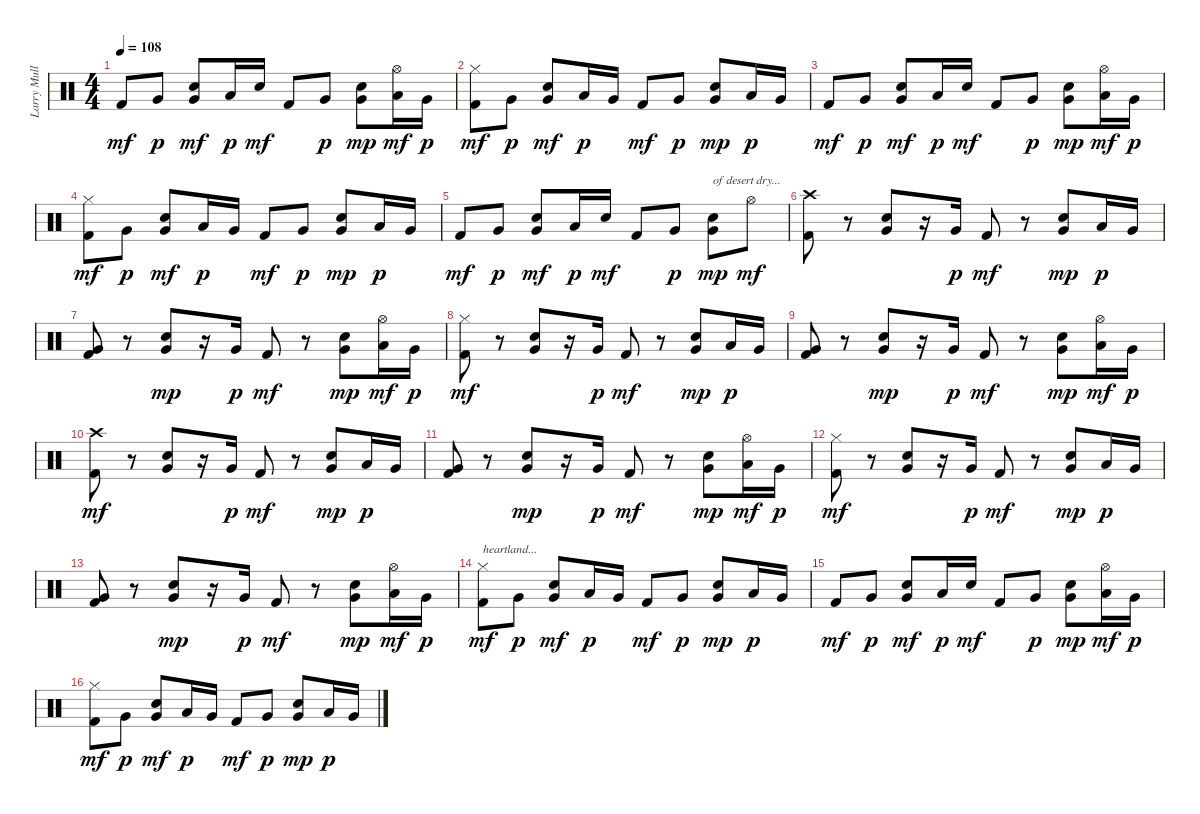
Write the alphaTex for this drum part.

\track ("Larry Mullen Jr." "Larry Mull") {instrument percussion}
\staff {score}
\articulation defaults
\ts (4 4)
\tempo 108
\clef neutral
\ks c "Kick (hit) 2".8{dy mf} "Very Low Tom (hit)".8{dy p}
("Electric Snare (hit)" "Very Low Tom (hit)").8{dy mf} "Low Floor Tom (hit)".16{dy p} "Electric Snare (hit)".16{dy mf} "Kick (hit) 2".8 "Very Low Tom (hit)".8{dy p} ("Electric Snare (hit)" "Very Low Tom (hit)").8{dy mp} ("Low Floor Tom (hit)" "Hi-Hat (open)").16{dy mf} "Very Low Tom (hit)".16{dy p} |
("Kick (hit) 2" "Hi-Hat (closed)").8{dy mf} "Very Low Tom (hit)".8{dy p} ("Electric Snare (hit)" "Very Low Tom (hit)").8{dy mf} "Low Floor Tom (hit)".16{dy p} "Very Low Tom (hit)".16 "Kick (hit) 2".8{dy mf} "Very Low Tom (hit)".8{dy p} ("Electric Snare (hit)" "Very Low Tom (hit)").8{dy mp} "Low Floor Tom (hit)".16{dy p} "Very Low Tom (hit)".16 |
"Kick (hit) 2".8{dy mf} "Very Low Tom (hit)".8{dy p} ("Electric Snare (hit)" "Very Low Tom (hit)").8{dy mf} "Low Floor Tom (hit)".16{dy p} "Electric Snare (hit)".16{dy mf} "Kick (hit) 2".8 "Very Low Tom (hit)".8{dy p} ("Electric Snare (hit)" "Very Low Tom (hit)").8{dy mp} ("Low Floor Tom (hit)" "Hi-Hat (open)").16{dy mf} "Very Low Tom (hit)".16{dy p} |
("Kick (hit) 2" "Hi-Hat (closed)").8{dy mf} "Very Low Tom (hit)".8{dy p} ("Electric Snare (hit)" "Very Low Tom (hit)").8{dy mf} "Low Floor Tom (hit)".16{dy p} "Very Low Tom (hit)".16 "Kick (hit) 2".8{dy mf} "Very Low Tom (hit)".8{dy p} ("Electric Snare (hit)" "Very Low Tom (hit)").8{dy mp} "Low Floor Tom (hit)".16{dy p} "Very Low Tom (hit)".16 |
"Kick (hit) 2".8{dy mf} "Very Low Tom (hit)".8{dy p} ("Electric Snare (hit)" "Very Low Tom (hit)").8{dy mf} "Low Floor Tom (hit)".16{dy p} "Electric Snare (hit)".16{dy mf} "Kick (hit) 2".8 "Very Low Tom (hit)".8{dy p} ("Electric Snare (hit)" "Very Low Tom (hit)").8{txt "of desert dry..." dy mp} "Hi-Hat (open)".8{dy mf} |
("Kick (hit) 2" "Crash high (hit)").8 r.8 ("Electric Snare (hit)" "Very Low Tom (hit)").8 r.16 "Very Low Tom (hit)".16{dy p} "Kick (hit) 2".8{dy mf} r.8 ("Electric Snare (hit)" "Very Low Tom (hit)").8{dy mp} "Low Floor Tom (hit)".16{dy p} "Very Low Tom (hit)".16 |
("Kick (hit) 2" "Very Low Tom (hit)").8 r.8 ("Electric Snare (hit)" "Very Low Tom (hit)").8{dy mp} r.16 "Very Low Tom (hit)".16{dy p} "Kick (hit) 2".8{dy mf} r.8 ("Electric Snare (hit)" "Very Low Tom (hit)").8{dy mp} ("Low Floor Tom (hit)" "Hi-Hat (open)").16{dy mf} "Very Low Tom (hit)".16{dy p} |
("Kick (hit) 2" "Hi-Hat (closed)").8{dy mf} r.8 ("Electric Snare (hit)" "Very Low Tom (hit)").8 r.16 "Very Low Tom (hit)".16{dy p} "Kick (hit) 2".8{dy mf} r.8 ("Electric Snare (hit)" "Very Low Tom (hit)").8{dy mp} "Low Floor Tom (hit)".16{dy p} "Very Low Tom (hit)".16 |
("Kick (hit) 2" "Very Low Tom (hit)").8 r.8 ("Electric Snare (hit)" "Very Low Tom (hit)").8{dy mp} r.16 "Very Low Tom (hit)".16{dy p} "Kick (hit) 2".8{dy mf} r.8 ("Electric Snare (hit)" "Very Low Tom (hit)").8{dy mp} ("Low Floor Tom (hit)" "Hi-Hat (open)").16{dy mf} "Very Low Tom (hit)".16{dy p} |
("Kick (hit) 2" "Crash high (hit)").8{dy mf} r.8 ("Electric Snare (hit)" "Very Low Tom (hit)").8 r.16 "Very Low Tom (hit)".16{dy p} "Kick (hit) 2".8{dy mf} r.8 ("Electric Snare (hit)" "Very Low Tom (hit)").8{dy mp} "Low Floor Tom (hit)".16{dy p} "Very Low Tom (hit)".16 |
("Kick (hit) 2" "Very Low Tom (hit)").8 r.8 ("Electric Snare (hit)" "Very Low Tom (hit)").8{dy mp} r.16 "Very Low Tom (hit)".16{dy p} "Kick (hit) 2".8{dy mf} r.8 ("Electric Snare (hit)" "Very Low Tom (hit)").8{dy mp} ("Low Floor Tom (hit)" "Hi-Hat (open)").16{dy mf} "Very Low Tom (hit)".16{dy p} |
("Kick (hit) 2" "Hi-Hat (closed)").8{dy mf} r.8 ("Electric Snare (hit)" "Very Low Tom (hit)").8 r.16 "Very Low Tom (hit)".16{dy p} "Kick (hit) 2".8{dy mf} r.8 ("Electric Snare (hit)" "Very Low Tom (hit)").8{dy mp} "Low Floor Tom (hit)".16{dy p} "Very Low Tom (hit)".16 |
("Kick (hit) 2" "Very Low Tom (hit)").8 r.8 ("Electric Snare (hit)" "Very Low Tom (hit)").8{dy mp} r.16 "Very Low Tom (hit)".16{dy p} "Kick (hit) 2".8{dy mf} r.8 ("Electric Snare (hit)" "Very Low Tom (hit)").8{dy mp} ("Low Floor Tom (hit)" "Hi-Hat (open)").16{dy mf} "Very Low Tom (hit)".16{dy p} |
("Kick (hit) 2" "Hi-Hat (closed)").8{txt "heartland..." dy mf} "Very Low Tom (hit)".8{dy p} ("Electric Snare (hit)" "Very Low Tom (hit)").8{dy mf} "Low Floor Tom (hit)".16{dy p} "Very Low Tom (hit)".16 "Kick (hit) 2".8{dy mf} "Very Low Tom (hit)".8{dy p} ("Electric Snare (hit)" "Very Low Tom (hit)").8{dy mp} "Low Floor Tom (hit)".16{dy p} "Very Low Tom (hit)".16 |
"Kick (hit) 2".8{dy mf} "Very Low Tom (hit)".8{dy p} ("Electric Snare (hit)" "Very Low Tom (hit)").8{dy mf} "Low Floor Tom (hit)".16{dy p} "Electric Snare (hit)".16{dy mf} "Kick (hit) 2".8 "Very Low Tom (hit)".8{dy p} ("Electric Snare (hit)" "Very Low Tom (hit)").8{dy mp} ("Low Floor Tom (hit)" "Hi-Hat (open)").16{dy mf} "Very Low Tom (hit)".16{dy p} |
("Kick (hit) 2" "Hi-Hat (closed)").8{dy mf} "Very Low Tom (hit)".8{dy p} ("Electric Snare (hit)" "Very Low Tom (hit)").8{dy mf} "Low Floor Tom (hit)".16{dy p} "Very Low Tom (hit)".16 "Kick (hit) 2".8{dy mf} "Very Low Tom (hit)".8{dy p} ("Electric Snare (hit)" "Very Low Tom (hit)").8{dy mp} "Low Floor Tom (hit)".16{dy p} "Very Low Tom (hit)".16
